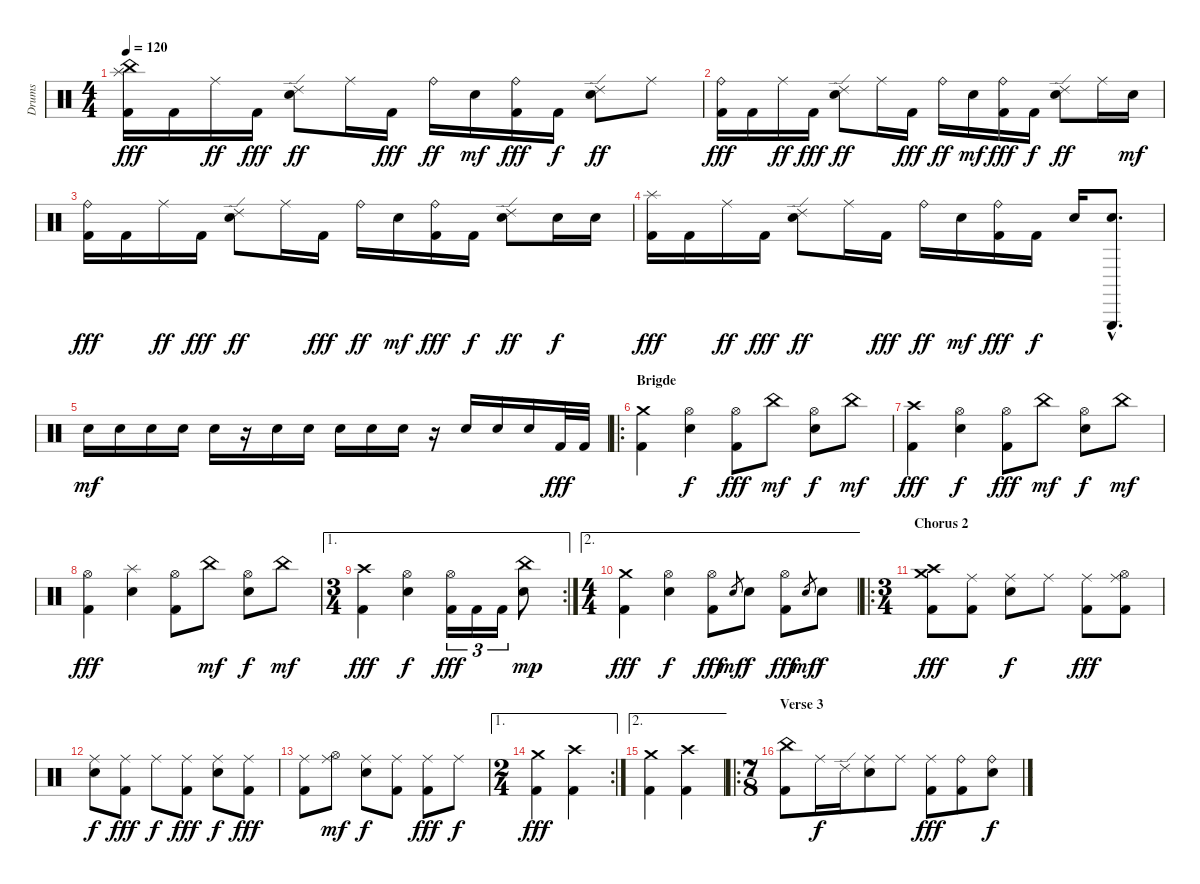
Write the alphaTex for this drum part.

\track ("Drums" "Drums") {instrument percussion}
\staff {score}
\articulation defaults
\ts (4 4)
\tempo 120
\clef neutral
\ks c
("China (hit)" "Splash (hit)" "Kick (hit) 2").16{dy fff} "Kick (hit) 2".16 "Ride (middle)".16{dy ff} "Kick (hit) 2".16{dy fff} ("Ride (edge) 2" "Electric Snare (hit)").8{dy ff} "Ride (middle)".16 "Kick (hit) 2".16{dy fff} "Ride (bell)".16{dy ff} "Electric Snare (hit)".16{dy mf} ("Ride (bell)" "Kick (hit) 2").16{dy fff} "Kick (hit) 2".16{dy f} ("Ride (edge) 2" "Electric Snare (hit)").8{dy ff} "Ride (middle)".8 |
("Ride (bell)" "Kick (hit) 2").16{dy fff} "Kick (hit) 2".16 "Ride (middle)".16{dy ff} "Kick (hit) 2".16{dy fff} ("Ride (edge) 2" "Electric Snare (hit)").8{dy ff} "Ride (middle)".16 "Kick (hit) 2".16{dy fff} "Ride (bell)".16{dy ff} "Electric Snare (hit)".16{dy mf} ("Ride (bell)" "Kick (hit) 2").16{dy fff} "Kick (hit) 2".16{dy f} ("Ride (edge) 2" "Electric Snare (hit)").8{dy ff} "Ride (middle)".16 "Electric Snare (hit)".16{dy mf} |
("Ride (bell)" "Kick (hit) 2").16{dy fff} "Kick (hit) 2".16 "Ride (middle)".16{dy ff} "Kick (hit) 2".16{dy fff} ("Ride (edge) 2" "Electric Snare (hit)").8{dy ff} "Ride (middle)".16 "Kick (hit) 2".16{dy fff} "Ride (bell)".16{dy ff} "Electric Snare (hit)".16{dy mf} ("Ride (bell)" "Kick (hit) 2").16{dy fff} "Kick (hit) 2".16{dy f} ("Ride (edge) 2" "Electric Snare (hit)").8{dy ff} "Electric Snare (hit)".16{dy f} "Electric Snare (hit)".16 |
("Splash (hit)" "Kick (hit) 2").16{dy fff} "Kick (hit) 2".16 "Ride (middle)".16{dy ff} "Kick (hit) 2".16{dy fff} ("Ride (edge) 2" "Electric Snare (hit)").8{dy ff} "Ride (middle)".16 "Kick (hit) 2".16{dy fff} "Ride (bell)".16{dy ff} "Electric Snare (hit)".16{dy mf} ("Ride (bell)" "Kick (hit) 2").16{dy fff} "Kick (hit) 2".16{dy f} "Electric Snare (hit)".16 ("Triangle (hit)"{hac} "Electric Snare (hit)"{hac}).8{d} |
"Electric Snare (hit)".16{dy mf} "Electric Snare (hit)".16 "Electric Snare (hit)".16 "Electric Snare (hit)".16 "Electric Snare (hit)".16 r.16 "Electric Snare (hit)".16 "Electric Snare (hit)".16 "Electric Snare (hit)".16 "Electric Snare (hit)".16 "Electric Snare (hit)".16 r.16 "Electric Snare (hit)".16 "Electric Snare (hit)".16 "Electric Snare (hit)".16 "Kick (hit) 2".32{dy fff} "Kick (hit) 2".32 |
\ro
\section ("" "Brigde")
("Crash medium (hit)" "Kick (hit) 2").4 ("Hi-Hat (open)" "Electric Snare (hit)").4{dy f} ("Hi-Hat (open)" "Kick (hit) 2").8{dy fff} "China (hit)".8{dy mf} ("Hi-Hat (open)" "Electric Snare (hit)").8{dy f} "China (hit)".8{dy mf} |
("Crash high (hit)" "Kick (hit) 2").4{dy fff} ("Hi-Hat (open)" "Electric Snare (hit)").4{dy f} ("Hi-Hat (open)" "Kick (hit) 2").8{dy fff} "China (hit)".8{dy mf} ("Hi-Hat (open)" "Electric Snare (hit)").8{dy f} "China (hit)".8{dy mf} |
("Hi-Hat (open)" "Kick (hit) 2").4{dy fff} ("Splash (hit)" "Electric Snare (hit)").4 ("Hi-Hat (open)" "Kick (hit) 2").8 "China (hit)".8{dy mf} ("Hi-Hat (open)" "Electric Snare (hit)").8{dy f} "China (hit)".8{dy mf} |
\ae 1
\rc 2
\ts (3 4)
("Crash high (hit)" "Kick (hit) 2").4{dy fff} ("Hi-Hat (open)" "Electric Snare (hit)").4{dy f} ("Hi-Hat (open)" "Kick (hit) 2").16{tu (3 2) dy fff} "Kick (hit) 2".16{tu (3 2)} "Kick (hit) 2".16{tu (3 2)} ("China (hit)" "Electric Snare (hit)").8{dy mp} |
\ae 2
\ts (4 4)
("Crash medium (hit)" "Kick (hit) 2").4{dy fff} ("Hi-Hat (open)" "Electric Snare (hit)").4{dy f} ("Hi-Hat (open)" "Kick (hit) 2").8{dy fff} "Electric Snare (hit)".8{gr dy mf} "Electric Snare (hit)".8{dy f} ("Hi-Hat (open)" "Kick (hit) 2").8{dy fff} "Electric Snare (hit)".8{gr dy mf} "Electric Snare (hit)".8{dy f} |
\ro
\ts (3 4)
\section ("" "Chorus 2")
("Crash medium (hit)" "Crash high (hit)" "Kick (hit) 2").8{dy fff} ("Ride (middle)" "Kick (hit) 2").8 ("Ride (middle)" "Electric Snare (hit)").8{dy f} "Ride (middle)".8 ("Ride (middle)" "Kick (hit) 2").8{dy fff} ("Ride (middle)" "Hi-Hat (open)" "Kick (hit) 2").8 |
("Ride (middle)" "Electric Snare (hit)").8{dy f} ("Ride (middle)" "Kick (hit) 2").8{dy fff} "Ride (middle)".8{dy f} ("Ride (middle)" "Kick (hit) 2").8{dy fff} ("Ride (middle)" "Electric Snare (hit)").8{dy f} ("Ride (middle)" "Kick (hit) 2").8{dy fff} |
("Ride (middle)" "Kick (hit) 2").8 ("Ride (middle)" "Hi-Hat (open)").8{dy mf} ("Ride (middle)" "Electric Snare (hit)").8{dy f} ("Ride (middle)" "Kick (hit) 2").8 ("Ride (middle)" "Kick (hit) 2").8{dy fff} "Ride (middle)".8{dy f} |
\ae 1
\rc 2
\ts (2 4)
("Crash medium (hit)" "Kick (hit) 2").4{dy fff} ("Crash high (hit)" "Kick (hit) 2").4 |
\ae 2
("Crash medium (hit)" "Kick (hit) 2").4 ("Crash high (hit)" "Kick (hit) 2").4 |
\ro
\ts (7 8)
\section ("" "Verse 3")
("China (hit)" "Kick (hit) 2").8 "Ride (middle)".16{dy f} "Ride (edge) 2".16 ("Ride (middle)" "Electric Snare (hit)").8 "Ride (middle)".8 ("Ride (middle)" "Kick (hit) 2").8{dy fff} ("Ride (bell)" "Kick (hit) 2").8 ("Ride (bell)" "Electric Snare (hit)").8{dy f}
